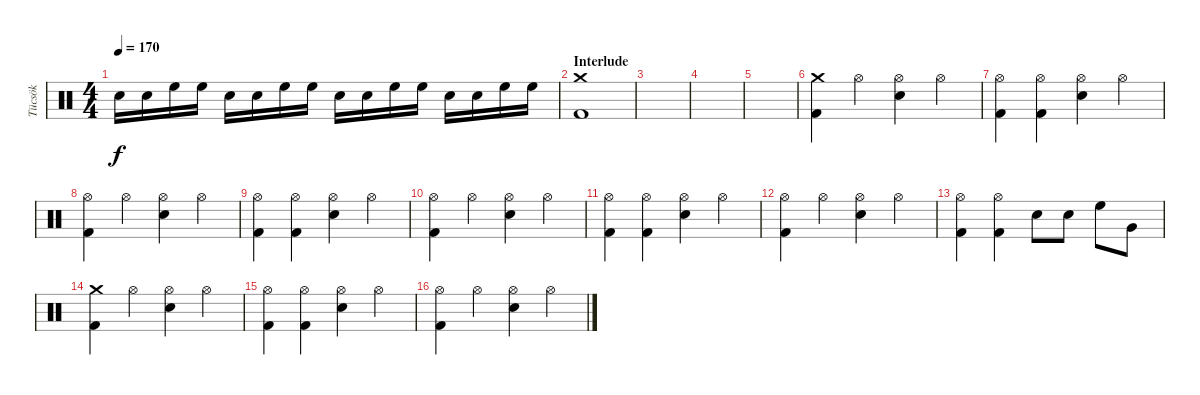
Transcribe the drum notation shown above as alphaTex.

\track ("Tücsök" "Tücsök") {instrument percussion}
\staff {score}
\articulation defaults
\ts (4 4)
\tempo 170
\clef neutral
\ks c "Electric Snare (hit)".16{dy f} "Electric Snare (hit)".16 "High Floor Tom (hit)".16 "High Floor Tom (hit)".16 "Electric Snare (hit)".16 "Electric Snare (hit)".16 "High Floor Tom (hit)".16 "High Floor Tom (hit)".16 "Electric Snare (hit)".16 "Electric Snare (hit)".16 "High Floor Tom (hit)".16 "High Floor Tom (hit)".16 "Electric Snare (hit)".16 "Electric Snare (hit)".16 "High Floor Tom (hit)".16 "High Floor Tom (hit)".16
|
\section ("" "Interlude")
("Crash medium (hit)" "Kick (hit) 2").1 |
|
|
|
("Crash medium (hit)" "Kick (hit) 2").4 "Hi-Hat (open)".4 ("Hi-Hat (open)" "Electric Snare (hit)").4 "Hi-Hat (open)".4 |
("Hi-Hat (open)" "Kick (hit) 2").4 ("Hi-Hat (open)" "Kick (hit) 2").4 ("Hi-Hat (open)" "Electric Snare (hit)").4 "Hi-Hat (open)".4 |
("Hi-Hat (open)" "Kick (hit) 2").4 "Hi-Hat (open)".4 ("Hi-Hat (open)" "Electric Snare (hit)").4 "Hi-Hat (open)".4 |
("Hi-Hat (open)" "Kick (hit) 2").4 ("Hi-Hat (open)" "Kick (hit) 2").4 ("Hi-Hat (open)" "Electric Snare (hit)").4 "Hi-Hat (open)".4 |
("Hi-Hat (open)" "Kick (hit) 2").4 "Hi-Hat (open)".4 ("Hi-Hat (open)" "Electric Snare (hit)").4 "Hi-Hat (open)".4 |
("Hi-Hat (open)" "Kick (hit) 2").4 ("Hi-Hat (open)" "Kick (hit) 2").4 ("Hi-Hat (open)" "Electric Snare (hit)").4 "Hi-Hat (open)".4 |
("Hi-Hat (open)" "Kick (hit) 2").4 "Hi-Hat (open)".4 ("Hi-Hat (open)" "Electric Snare (hit)").4 "Hi-Hat (open)".4 |
("Hi-Hat (open)" "Kick (hit) 2").4 ("Hi-Hat (open)" "Kick (hit) 2").4 "Electric Snare (hit)".8 "Electric Snare (hit)".8 "High Floor Tom (hit)".8 "Very Low Tom (hit)".8 |
("Crash medium (hit)" "Kick (hit) 2").4 "Hi-Hat (open)".4 ("Hi-Hat (open)" "Electric Snare (hit)").4 "Hi-Hat (open)".4 |
("Hi-Hat (open)" "Kick (hit) 2").4 ("Hi-Hat (open)" "Kick (hit) 2").4 ("Hi-Hat (open)" "Electric Snare (hit)").4 "Hi-Hat (open)".4 |
("Hi-Hat (open)" "Kick (hit) 2").4 "Hi-Hat (open)".4 ("Hi-Hat (open)" "Electric Snare (hit)").4 "Hi-Hat (open)".4
